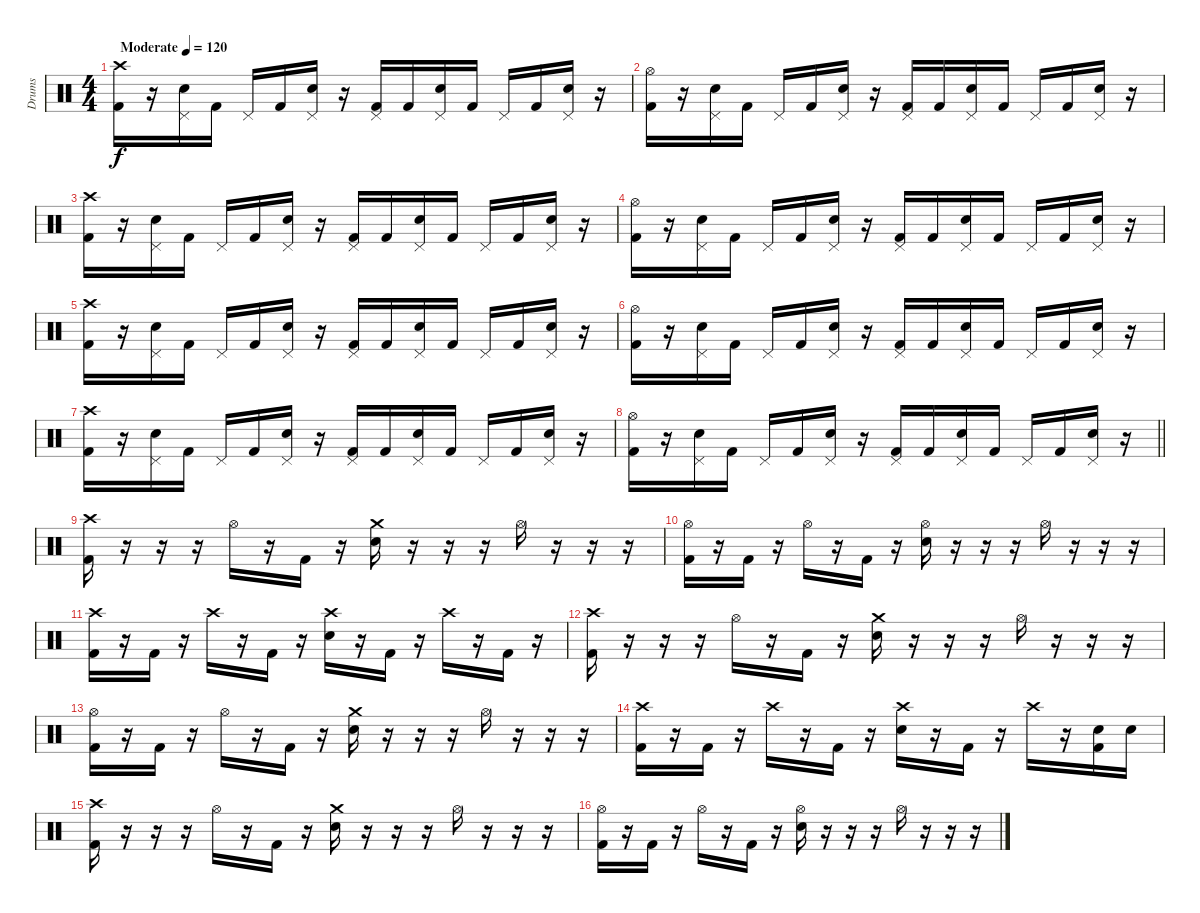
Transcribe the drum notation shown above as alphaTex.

\track ("Drums" "Drums") {instrument percussion}
\staff
\articulation defaults
\ts (4 4)
\section ("" "")
\tempo (120 "Moderate")
\clef neutral
\ks c
("Crash high (hit)" "Kick (hit) 2").16{dy f} r.16 ("Pedal Hi-Hat (hit)" "Snare (hit) 2").16 "Kick (hit) 2".16 "Pedal Hi-Hat (hit)".16 "Kick (hit) 2".16 ("Pedal Hi-Hat (hit)" "Snare (hit) 2").16 r.16 ("Pedal Hi-Hat (hit)" "Kick (hit) 2").16 "Kick (hit) 2".16 ("Pedal Hi-Hat (hit)" "Snare (hit) 2").16 "Kick (hit) 2".16 "Pedal Hi-Hat (hit)".16 "Kick (hit) 2".16 ("Pedal Hi-Hat (hit)" "Snare (hit) 2").16 r.16 |
("Hi-Hat (open)" "Kick (hit) 2").16 r.16 ("Pedal Hi-Hat (hit)" "Snare (hit) 2").16 "Kick (hit) 2".16 "Pedal Hi-Hat (hit)".16 "Kick (hit) 2".16 ("Pedal Hi-Hat (hit)" "Snare (hit) 2").16 r.16 ("Pedal Hi-Hat (hit)" "Kick (hit) 2").16 "Kick (hit) 2".16 ("Pedal Hi-Hat (hit)" "Snare (hit) 2").16 "Kick (hit) 2".16 "Pedal Hi-Hat (hit)".16 "Kick (hit) 2".16 ("Pedal Hi-Hat (hit)" "Snare (hit) 2").16 r.16 |
("Crash high (hit)" "Kick (hit) 2").16 r.16 ("Pedal Hi-Hat (hit)" "Snare (hit) 2").16 "Kick (hit) 2".16 "Pedal Hi-Hat (hit)".16 "Kick (hit) 2".16 ("Pedal Hi-Hat (hit)" "Snare (hit) 2").16 r.16 ("Pedal Hi-Hat (hit)" "Kick (hit) 2").16 "Kick (hit) 2".16 ("Pedal Hi-Hat (hit)" "Snare (hit) 2").16 "Kick (hit) 2".16 "Pedal Hi-Hat (hit)".16 "Kick (hit) 2".16 ("Pedal Hi-Hat (hit)" "Snare (hit) 2").16 r.16 |
("Hi-Hat (open)" "Kick (hit) 2").16 r.16 ("Pedal Hi-Hat (hit)" "Snare (hit) 2").16 "Kick (hit) 2".16 "Pedal Hi-Hat (hit)".16 "Kick (hit) 2".16 ("Pedal Hi-Hat (hit)" "Snare (hit) 2").16 r.16 ("Pedal Hi-Hat (hit)" "Kick (hit) 2").16 "Kick (hit) 2".16 ("Pedal Hi-Hat (hit)" "Snare (hit) 2").16 "Kick (hit) 2".16 "Pedal Hi-Hat (hit)".16 "Kick (hit) 2".16 ("Pedal Hi-Hat (hit)" "Snare (hit) 2").16 r.16 |
("Crash high (hit)" "Kick (hit) 2").16 r.16 ("Pedal Hi-Hat (hit)" "Snare (hit) 2").16 "Kick (hit) 2".16 "Pedal Hi-Hat (hit)".16 "Kick (hit) 2".16 ("Pedal Hi-Hat (hit)" "Snare (hit) 2").16 r.16 ("Pedal Hi-Hat (hit)" "Kick (hit) 2").16 "Kick (hit) 2".16 ("Pedal Hi-Hat (hit)" "Snare (hit) 2").16 "Kick (hit) 2".16 "Pedal Hi-Hat (hit)".16 "Kick (hit) 2".16 ("Pedal Hi-Hat (hit)" "Snare (hit) 2").16 r.16 |
("Hi-Hat (open)" "Kick (hit) 2").16 r.16 ("Pedal Hi-Hat (hit)" "Snare (hit) 2").16 "Kick (hit) 2".16 "Pedal Hi-Hat (hit)".16 "Kick (hit) 2".16 ("Pedal Hi-Hat (hit)" "Snare (hit) 2").16 r.16 ("Pedal Hi-Hat (hit)" "Kick (hit) 2").16 "Kick (hit) 2".16 ("Pedal Hi-Hat (hit)" "Snare (hit) 2").16 "Kick (hit) 2".16 "Pedal Hi-Hat (hit)".16 "Kick (hit) 2".16 ("Pedal Hi-Hat (hit)" "Snare (hit) 2").16 r.16 |
("Crash high (hit)" "Kick (hit) 2").16 r.16 ("Pedal Hi-Hat (hit)" "Snare (hit) 2").16 "Kick (hit) 2".16 "Pedal Hi-Hat (hit)".16 "Kick (hit) 2".16 ("Pedal Hi-Hat (hit)" "Snare (hit) 2").16 r.16 ("Pedal Hi-Hat (hit)" "Kick (hit) 2").16 "Kick (hit) 2".16 ("Pedal Hi-Hat (hit)" "Snare (hit) 2").16 "Kick (hit) 2".16 "Pedal Hi-Hat (hit)".16 "Kick (hit) 2".16 ("Pedal Hi-Hat (hit)" "Snare (hit) 2").16 r.16 |
\barLineRight lightlight
("Hi-Hat (open)" "Kick (hit) 2").16 r.16 ("Pedal Hi-Hat (hit)" "Snare (hit) 2").16 "Kick (hit) 2".16 "Pedal Hi-Hat (hit)".16 "Kick (hit) 2".16 ("Pedal Hi-Hat (hit)" "Snare (hit) 2").16 r.16 ("Pedal Hi-Hat (hit)" "Kick (hit) 2").16 "Kick (hit) 2".16 ("Pedal Hi-Hat (hit)" "Snare (hit) 2").16 "Kick (hit) 2".16 "Pedal Hi-Hat (hit)".16 "Kick (hit) 2".16 ("Pedal Hi-Hat (hit)" "Snare (hit) 2").16 r.16 |
\section ("" "")
("Crash high (hit)" "Kick (hit) 2").16 r.16 r.16 r.16 "Hi-Hat (open)".16 r.16 "Kick (hit) 2".16 r.16 ("Crash medium (hit)" "Snare (hit) 2").16 r.16 r.16 r.16 "Hi-Hat (open)".16 r.16 r.16 r.16 |
("Hi-Hat (open)" "Kick (hit) 2").16 r.16 "Kick (hit) 2".16 r.16 "Hi-Hat (open)".16 r.16 "Kick (hit) 2".16 r.16 ("Hi-Hat (open)" "Snare (hit) 2").16 r.16 r.16 r.16 "Hi-Hat (open)".16 r.16 r.16 r.16 |
("Crash high (hit)" "Kick (hit) 2").16 r.16 "Kick (hit) 2".16 r.16 "Crash high (hit)".16 r.16 "Kick (hit) 2".16 r.16 ("Crash high (hit)" "Snare (hit) 2").16 r.16 "Kick (hit) 2".16 r.16 "Crash high (hit)".16 r.16 "Kick (hit) 2".16 r.16 |
("Crash high (hit)" "Kick (hit) 2").16 r.16 r.16 r.16 "Hi-Hat (open)".16 r.16 "Kick (hit) 2".16 r.16 ("Crash medium (hit)" "Snare (hit) 2").16 r.16 r.16 r.16 "Hi-Hat (open)".16 r.16 r.16 r.16 |
("Hi-Hat (open)" "Kick (hit) 2").16 r.16 "Kick (hit) 2".16 r.16 "Hi-Hat (open)".16 r.16 "Kick (hit) 2".16 r.16 ("Crash medium (hit)" "Snare (hit) 2").16 r.16 r.16 r.16 "Hi-Hat (open)".16 r.16 r.16 r.16 |
("Crash high (hit)" "Kick (hit) 2").16 r.16 "Kick (hit) 2".16 r.16 "Crash high (hit)".16 r.16 "Kick (hit) 2".16 r.16 ("Crash high (hit)" "Snare (hit) 2").16 r.16 "Kick (hit) 2".16 r.16 "Crash high (hit)".16 r.16 ("Snare (hit) 2" "Kick (hit) 2").16 "Snare (hit) 2".16 |
("Crash high (hit)" "Kick (hit) 2").16 r.16 r.16 r.16 "Hi-Hat (open)".16 r.16 "Kick (hit) 2".16 r.16 ("Crash medium (hit)" "Snare (hit) 2").16 r.16 r.16 r.16 "Hi-Hat (open)".16 r.16 r.16 r.16 |
("Hi-Hat (open)" "Kick (hit) 2").16 r.16 "Kick (hit) 2".16 r.16 "Hi-Hat (open)".16 r.16 "Kick (hit) 2".16 r.16 ("Hi-Hat (open)" "Snare (hit) 2").16 r.16 r.16 r.16 "Hi-Hat (open)".16 r.16 r.16 r.16
